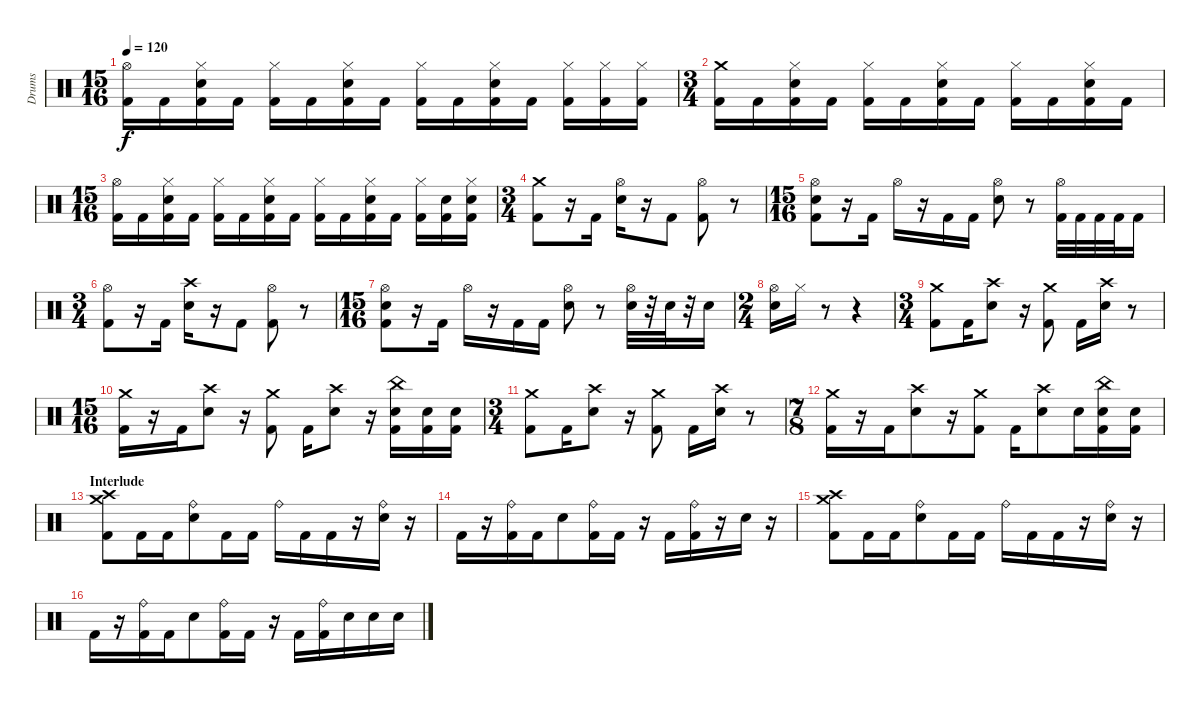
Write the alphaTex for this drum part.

\track ("Drums" "Drums") {instrument percussion}
\staff {score}
\articulation defaults
\ts (15 16)
\tempo 120
\clef neutral
\ks c
("Hi-Hat (open)" "Kick (hit) 2").16{dy f} "Kick (hit) 2".16 ("Hi-Hat (closed)" "Electric Snare (hit)" "Kick (hit) 2").16 "Kick (hit) 2".16 ("Hi-Hat (closed)" "Kick (hit) 2").16 "Kick (hit) 2".16 ("Hi-Hat (closed)" "Electric Snare (hit)" "Kick (hit) 2").16 "Kick (hit) 2".16 ("Hi-Hat (closed)" "Kick (hit) 2").16 "Kick (hit) 2".16 ("Hi-Hat (closed)" "Electric Snare (hit)" "Kick (hit) 2").16 "Kick (hit) 2".16 ("Hi-Hat (closed)" "Kick (hit) 2").16 ("Hi-Hat (closed)" "Kick (hit) 2").16 ("Hi-Hat (closed)" "Kick (hit) 2").16 |
\ts (3 4)
("Crash medium (hit)" "Kick (hit) 2").16 "Kick (hit) 2".16 ("Hi-Hat (closed)" "Electric Snare (hit)" "Kick (hit) 2").16 "Kick (hit) 2".16 ("Hi-Hat (closed)" "Kick (hit) 2").16 "Kick (hit) 2".16 ("Hi-Hat (closed)" "Electric Snare (hit)" "Kick (hit) 2").16 "Kick (hit) 2".16 ("Hi-Hat (closed)" "Kick (hit) 2").16 "Kick (hit) 2".16 ("Hi-Hat (closed)" "Electric Snare (hit)" "Kick (hit) 2").16 "Kick (hit) 2".16 |
\ts (15 16)
("Hi-Hat (open)" "Kick (hit) 2").16 "Kick (hit) 2".16 ("Hi-Hat (closed)" "Electric Snare (hit)" "Kick (hit) 2").16 "Kick (hit) 2".16 ("Hi-Hat (closed)" "Kick (hit) 2").16 "Kick (hit) 2".16 ("Hi-Hat (closed)" "Electric Snare (hit)" "Kick (hit) 2").16 "Kick (hit) 2".16 ("Hi-Hat (closed)" "Kick (hit) 2").16 "Kick (hit) 2".16 ("Hi-Hat (closed)" "Electric Snare (hit)" "Kick (hit) 2").16 "Kick (hit) 2".16 ("Hi-Hat (closed)" "Kick (hit) 2").16 ("Electric Snare (hit)" "Kick (hit) 2").16 ("Hi-Hat (closed)" "Electric Snare (hit)" "Kick (hit) 2").16 |
\ts (3 4)
("Crash medium (hit)" "Kick (hit) 2").8 r.16 "Kick (hit) 2".16 ("Hi-Hat (open)" "Electric Snare (hit)").16 r.16 "Kick (hit) 2".8 ("Hi-Hat (open)" "Kick (hit) 2").8 r.8 |
\ts (15 16)
("Hi-Hat (open)" "Electric Snare (hit)" "Kick (hit) 2").8 r.16 "Kick (hit) 2".16 "Hi-Hat (open)".16 r.16 "Kick (hit) 2".16 "Kick (hit) 2".16 ("Hi-Hat (open)" "Electric Snare (hit)").8 r.8 ("Hi-Hat (open)" "Kick (hit) 2").32 "Kick (hit) 2".32 "Kick (hit) 2".32 "Kick (hit) 2".32 "Kick (hit) 2".16 |
\ts (3 4)
("Hi-Hat (open)" "Kick (hit) 2").8 r.16 "Kick (hit) 2".16 ("Crash high (hit)" "Electric Snare (hit)").16 r.16 "Kick (hit) 2".8 ("Hi-Hat (open)" "Kick (hit) 2").8 r.8 |
\ts (15 16)
("Hi-Hat (open)" "Electric Snare (hit)" "Kick (hit) 2").8 r.16 "Kick (hit) 2".16 "Hi-Hat (open)".16 r.16 "Kick (hit) 2".16 "Kick (hit) 2".16 ("Hi-Hat (open)" "Electric Snare (hit)").8 r.8 ("Hi-Hat (open)" "Electric Snare (hit)").32 r.32 "Electric Snare (hit)".32 r.32 "Electric Snare (hit)".16 |
\ts (2 4)
("Hi-Hat (open)" "Electric Snare (hit)").16 "Hi-Hat (closed)".16 r.8 r.4 |
\ts (3 4)
("Crash medium (hit)" "Kick (hit) 2").8 "Kick (hit) 2".16 ("Crash high (hit)" "Electric Snare (hit)").8 r.16 ("Crash medium (hit)" "Kick (hit) 2").8 "Kick (hit) 2".16 ("Crash high (hit)" "Electric Snare (hit)").16 r.8 |
\ts (15 16)
("Crash medium (hit)" "Kick (hit) 2").16 r.16 "Kick (hit) 2".16 ("Crash high (hit)" "Electric Snare (hit)").8 r.16 ("Crash medium (hit)" "Kick (hit) 2").8 "Kick (hit) 2".16 ("Crash high (hit)" "Electric Snare (hit)").8 r.16 ("China (hit)" "Electric Snare (hit)" "Kick (hit) 2").16 ("Electric Snare (hit)" "Kick (hit) 2").16 ("Electric Snare (hit)" "Kick (hit) 2").16 |
\ts (3 4)
("Crash medium (hit)" "Kick (hit) 2").8 "Kick (hit) 2".16 ("Crash high (hit)" "Electric Snare (hit)").8 r.16 ("Crash medium (hit)" "Kick (hit) 2").8 "Kick (hit) 2".16 ("Crash high (hit)" "Electric Snare (hit)").16 r.8 |
\ts (7 8)
("Crash medium (hit)" "Kick (hit) 2").16 r.16 "Kick (hit) 2".16 ("Crash high (hit)" "Electric Snare (hit)").8 r.16 ("Crash medium (hit)" "Kick (hit) 2").8 "Kick (hit) 2".16 ("Crash high (hit)" "Electric Snare (hit)").8 "Electric Snare (hit)".16 ("China (hit)" "Electric Snare (hit)" "Kick (hit) 2").16 ("Electric Snare (hit)" "Kick (hit) 2").16 |
\section ("" "Interlude")
("Crash high (hit)" "Crash medium (hit)" "Kick (hit) 2").8 "Kick (hit) 2".16 "Kick (hit) 2".16 ("Ride (bell)" "Electric Snare (hit)").8 "Kick (hit) 2".16 "Kick (hit) 2".16 "Ride (bell)".16 "Kick (hit) 2".16 "Kick (hit) 2".16 r.16 ("Ride (bell)" "Electric Snare (hit)").16 r.16 |
"Kick (hit) 2".16 r.16 ("Ride (bell)" "Kick (hit) 2").16 "Kick (hit) 2".16 "Electric Snare (hit)".8 ("Ride (bell)" "Kick (hit) 2").16 "Kick (hit) 2".16 r.16 "Kick (hit) 2".16 ("Ride (bell)" "Kick (hit) 2").16 r.16 "Electric Snare (hit)".16 r.16 |
("Crash high (hit)" "Crash medium (hit)" "Kick (hit) 2").8 "Kick (hit) 2".16 "Kick (hit) 2".16 ("Ride (bell)" "Electric Snare (hit)").8 "Kick (hit) 2".16 "Kick (hit) 2".16 "Ride (bell)".16 "Kick (hit) 2".16 "Kick (hit) 2".16 r.16 ("Ride (bell)" "Electric Snare (hit)").16 r.16 |
"Kick (hit) 2".16 r.16 ("Ride (bell)" "Kick (hit) 2").16 "Kick (hit) 2".16 "Electric Snare (hit)".8 ("Ride (bell)" "Kick (hit) 2").16 "Kick (hit) 2".16 r.16 "Kick (hit) 2".16 ("Ride (bell)" "Kick (hit) 2").16 "Electric Snare (hit)".16 "Electric Snare (hit)".16 "Electric Snare (hit)".16
